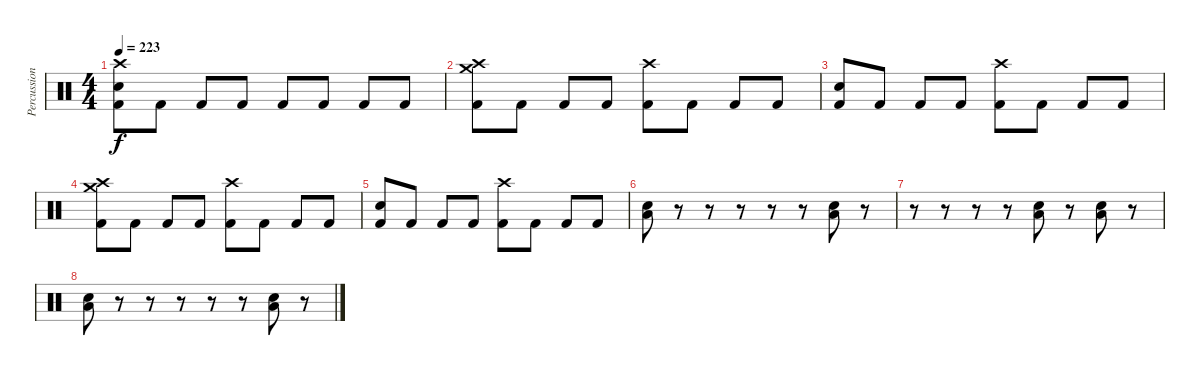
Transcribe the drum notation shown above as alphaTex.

\track ("Percussion" "Percussion") {instrument percussion}
\staff {score}
\articulation defaults
\ts (4 4)
\tempo 223
\clef neutral
\ks c
("Crash high (hit)" "Electric Snare (hit)" "Kick (hit) 2").8{dy f} "Kick (hit) 2".8 "Kick (hit) 2".8 "Kick (hit) 2".8 "Kick (hit) 2".8 "Kick (hit) 2".8 "Kick (hit) 2".8 "Kick (hit) 2".8 |
("Crash high (hit)" "Crash medium (hit)" "Kick (hit) 2").8 "Kick (hit) 2".8 "Kick (hit) 2".8 "Kick (hit) 2".8 ("Crash high (hit)" "Kick (hit) 2").8 "Kick (hit) 2".8 "Kick (hit) 2".8 "Kick (hit) 2".8 |
("Electric Snare (hit)" "Kick (hit) 2").8 "Kick (hit) 2".8 "Kick (hit) 2".8 "Kick (hit) 2".8 ("Crash high (hit)" "Kick (hit) 2").8 "Kick (hit) 2".8 "Kick (hit) 2".8 "Kick (hit) 2".8 |
("Crash high (hit)" "Crash medium (hit)" "Kick (hit) 2").8 "Kick (hit) 2".8 "Kick (hit) 2".8 "Kick (hit) 2".8 ("Crash high (hit)" "Kick (hit) 2").8 "Kick (hit) 2".8 "Kick (hit) 2".8 "Kick (hit) 2".8 |
("Electric Snare (hit)" "Kick (hit) 2").8 "Kick (hit) 2".8 "Kick (hit) 2".8 "Kick (hit) 2".8 ("Crash high (hit)" "Kick (hit) 2").8 "Kick (hit) 2".8 "Kick (hit) 2".8 "Kick (hit) 2".8 |
("Electric Snare (hit)" "Low Tom (hit)").8 r.8 r.8 r.8 r.8 r.8 ("Electric Snare (hit)" "Low Tom (hit)").8 r.8 |
r.8 r.8 r.8 r.8 ("Electric Snare (hit)" "Low Tom (hit)").8 r.8 ("Electric Snare (hit)" "Low Tom (hit)").8 r.8 |
("Electric Snare (hit)" "Low Tom (hit)").8 r.8 r.8 r.8 r.8 r.8 ("Electric Snare (hit)" "Low Tom (hit)").8 r.8
